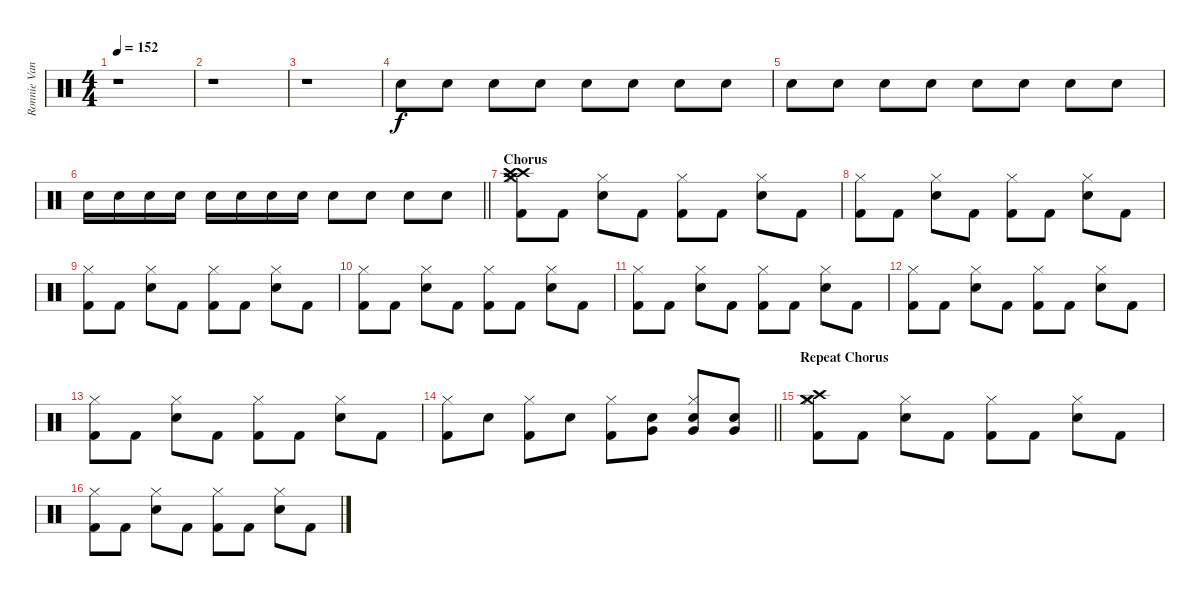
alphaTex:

\track ("Ronnie Vannucci Jr." "Ronnie Van") {instrument percussion}
\staff
\articulation defaults
\ts (4 4)
\tempo 152
\clef neutral
\ks c
r.1{dy f} |
r.1 |
r.1 |
"Electric Snare (hit)".8{volume 12} "Electric Snare (hit)".8 "Electric Snare (hit)".8 "Electric Snare (hit)".8 "Electric Snare (hit)".8 "Electric Snare (hit)".8 "Electric Snare (hit)".8 "Electric Snare (hit)".8 |
"Electric Snare (hit)".8 "Electric Snare (hit)".8 "Electric Snare (hit)".8 "Electric Snare (hit)".8 "Electric Snare (hit)".8 "Electric Snare (hit)".8 "Electric Snare (hit)".8 "Electric Snare (hit)".8 |
\barLineRight lightlight "Electric Snare (hit)".16 "Electric Snare (hit)".16 "Electric Snare (hit)".16 "Electric Snare (hit)".16 "Electric Snare (hit)".16 "Electric Snare (hit)".16 "Electric Snare (hit)".16 "Electric Snare (hit)".16 "Electric Snare (hit)".8 "Electric Snare (hit)".8 "Electric Snare (hit)".8 "Electric Snare (hit)".8
|
\section ("" "Chorus")
("Crash high (hit)" "Crash medium (hit)" "Hi-Hat (closed)" "Crash high (hit)" "Kick (hit) 2").8 "Kick (hit) 2".8 ("Hi-Hat (closed)" "Electric Snare (hit)").8 "Kick (hit) 2".8 ("Hi-Hat (closed)" "Kick (hit) 2").8 "Kick (hit) 2".8 ("Hi-Hat (closed)" "Electric Snare (hit)").8 "Kick (hit) 2".8 |
("Hi-Hat (closed)" "Kick (hit) 2").8 "Kick (hit) 2".8 ("Hi-Hat (closed)" "Electric Snare (hit)").8 "Kick (hit) 2".8 ("Hi-Hat (closed)" "Kick (hit) 2").8 "Kick (hit) 2".8 ("Hi-Hat (closed)" "Electric Snare (hit)").8 "Kick (hit) 2".8 |
("Hi-Hat (closed)" "Kick (hit) 2").8 "Kick (hit) 2".8 ("Hi-Hat (closed)" "Electric Snare (hit)").8 "Kick (hit) 2".8 ("Hi-Hat (closed)" "Kick (hit) 2").8 "Kick (hit) 2".8 ("Hi-Hat (closed)" "Electric Snare (hit)").8 "Kick (hit) 2".8 |
("Hi-Hat (closed)" "Kick (hit) 2").8 "Kick (hit) 2".8 ("Hi-Hat (closed)" "Electric Snare (hit)").8 "Kick (hit) 2".8 ("Hi-Hat (closed)" "Kick (hit) 2").8 "Kick (hit) 2".8 ("Hi-Hat (closed)" "Electric Snare (hit)").8 "Kick (hit) 2".8 |
("Hi-Hat (closed)" "Kick (hit) 2").8 "Kick (hit) 2".8 ("Hi-Hat (closed)" "Electric Snare (hit)").8 "Kick (hit) 2".8 ("Hi-Hat (closed)" "Kick (hit) 2").8 "Kick (hit) 2".8 ("Hi-Hat (closed)" "Electric Snare (hit)").8 "Kick (hit) 2".8 |
("Hi-Hat (closed)" "Kick (hit) 2").8 "Kick (hit) 2".8 ("Hi-Hat (closed)" "Electric Snare (hit)").8 "Kick (hit) 2".8 ("Hi-Hat (closed)" "Kick (hit) 2").8 "Kick (hit) 2".8 ("Hi-Hat (closed)" "Electric Snare (hit)").8 "Kick (hit) 2".8 |
("Hi-Hat (closed)" "Kick (hit) 2").8 "Kick (hit) 2".8 ("Hi-Hat (closed)" "Electric Snare (hit)").8 "Kick (hit) 2".8 ("Hi-Hat (closed)" "Kick (hit) 2").8 "Kick (hit) 2".8 ("Hi-Hat (closed)" "Electric Snare (hit)").8 "Kick (hit) 2".8 |
\barLineRight lightlight
("Hi-Hat (closed)" "Kick (hit) 2").8 "Electric Snare (hit)".8 ("Hi-Hat (closed)" "Kick (hit) 2").8 "Electric Snare (hit)".8 ("Hi-Hat (closed)" "Kick (hit) 2").8 ("Very Low Tom (hit)" "Electric Snare (hit)").8 ("Hi-Hat (closed)" "Very Low Tom (hit)" "Electric Snare (hit)").8 ("Very Low Tom (hit)" "Electric Snare (hit)").8 |
\section ("" "Repeat Chorus")
("Crash high (hit)" "Crash medium (hit)" "Hi-Hat (closed)" "Kick (hit) 2").8 "Kick (hit) 2".8 ("Hi-Hat (closed)" "Electric Snare (hit)").8 "Kick (hit) 2".8 ("Hi-Hat (closed)" "Kick (hit) 2").8 "Kick (hit) 2".8 ("Hi-Hat (closed)" "Electric Snare (hit)").8 "Kick (hit) 2".8 |
("Hi-Hat (closed)" "Kick (hit) 2").8 "Kick (hit) 2".8 ("Hi-Hat (closed)" "Electric Snare (hit)").8 "Kick (hit) 2".8 ("Hi-Hat (closed)" "Kick (hit) 2").8 "Kick (hit) 2".8 ("Hi-Hat (closed)" "Electric Snare (hit)").8 "Kick (hit) 2".8
